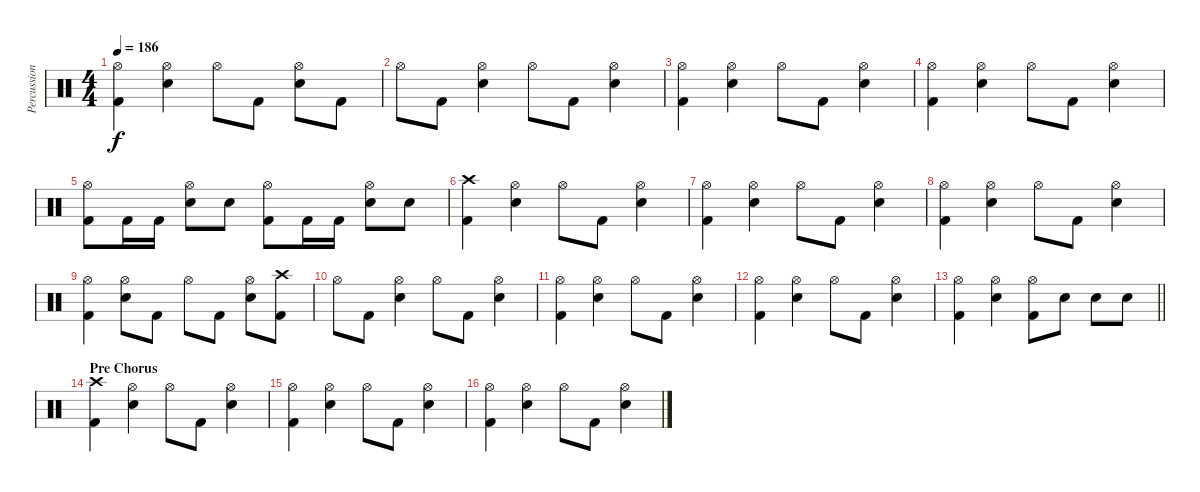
\track ("Percussion" "Percussion") {instrument percussion}
\staff {score}
\articulation defaults
\ts (4 4)
\tempo 186
\clef neutral
\ks c
("Hi-Hat (open)" "Kick (hit) 2").4{dy f} ("Hi-Hat (open)" "Snare (hit) 2").4 "Hi-Hat (open)".8 "Kick (hit) 2".8 ("Hi-Hat (open)" "Snare (hit) 2").8 "Kick (hit) 2".8 |
"Hi-Hat (open)".8 "Kick (hit) 2".8 ("Hi-Hat (open)" "Snare (hit) 2").4 "Hi-Hat (open)".8 "Kick (hit) 2".8 ("Hi-Hat (open)" "Snare (hit) 2").4 |
("Hi-Hat (open)" "Kick (hit) 2").4 ("Hi-Hat (open)" "Snare (hit) 2").4 "Hi-Hat (open)".8 "Kick (hit) 2".8 ("Hi-Hat (open)" "Snare (hit) 2").4 |
("Hi-Hat (open)" "Kick (hit) 2").4 ("Hi-Hat (open)" "Snare (hit) 2").4 "Hi-Hat (open)".8 "Kick (hit) 2".8 ("Hi-Hat (open)" "Snare (hit) 2").4 |
("Hi-Hat (open)" "Kick (hit) 2").8 "Kick (hit) 2".16 "Kick (hit) 2".16 ("Hi-Hat (open)" "Snare (hit) 2").8 "Snare (hit) 2".8 ("Hi-Hat (open)" "Kick (hit) 2").8 "Kick (hit) 2".16 "Kick (hit) 2".16 ("Hi-Hat (open)" "Snare (hit) 2").8 "Snare (hit) 2".8 |
("Crash high (hit)" "Kick (hit) 2").4 ("Hi-Hat (open)" "Snare (hit) 2").4 "Hi-Hat (open)".8 "Kick (hit) 2".8 ("Hi-Hat (open)" "Snare (hit) 2").4 |
("Hi-Hat (open)" "Kick (hit) 2").4 ("Hi-Hat (open)" "Snare (hit) 2").4 "Hi-Hat (open)".8 "Kick (hit) 2".8 ("Hi-Hat (open)" "Snare (hit) 2").4 |
("Hi-Hat (open)" "Kick (hit) 2").4 ("Hi-Hat (open)" "Snare (hit) 2").4 "Hi-Hat (open)".8 "Kick (hit) 2".8 ("Hi-Hat (open)" "Snare (hit) 2").4 |
("Hi-Hat (open)" "Kick (hit) 2").4 ("Hi-Hat (open)" "Snare (hit) 2").8 "Kick (hit) 2".8 "Hi-Hat (open)".8 "Kick (hit) 2".8 ("Hi-Hat (open)" "Snare (hit) 2").8 ("Crash high (hit)" "Kick (hit) 2").8 |
"Hi-Hat (open)".8 "Kick (hit) 2".8 ("Hi-Hat (open)" "Snare (hit) 2").4 "Hi-Hat (open)".8 "Kick (hit) 2".8 ("Hi-Hat (open)" "Snare (hit) 2").4 |
("Hi-Hat (open)" "Kick (hit) 2").4 ("Hi-Hat (open)" "Snare (hit) 2").4 "Hi-Hat (open)".8 "Kick (hit) 2".8 ("Hi-Hat (open)" "Snare (hit) 2").4 |
("Hi-Hat (open)" "Kick (hit) 2").4 ("Hi-Hat (open)" "Snare (hit) 2").4 "Hi-Hat (open)".8 "Kick (hit) 2".8 ("Hi-Hat (open)" "Snare (hit) 2").4 |
\barLineRight lightlight
("Hi-Hat (open)" "Kick (hit) 2").4 ("Hi-Hat (open)" "Snare (hit) 2").4 ("Hi-Hat (open)" "Kick (hit) 2").8 "Snare (hit) 2".8 "Snare (hit) 2".8 "Snare (hit) 2".8 |
\section ("" "Pre Chorus")
("Crash high (hit)" "Kick (hit) 2").4 ("Hi-Hat (open)" "Snare (hit) 2").4 "Hi-Hat (open)".8 "Kick (hit) 2".8 ("Hi-Hat (open)" "Snare (hit) 2").4 |
("Hi-Hat (open)" "Kick (hit) 2").4 ("Hi-Hat (open)" "Snare (hit) 2").4 "Hi-Hat (open)".8 "Kick (hit) 2".8 ("Hi-Hat (open)" "Snare (hit) 2").4 |
("Hi-Hat (open)" "Kick (hit) 2").4 ("Hi-Hat (open)" "Snare (hit) 2").4 "Hi-Hat (open)".8 "Kick (hit) 2".8 ("Hi-Hat (open)" "Snare (hit) 2").4
